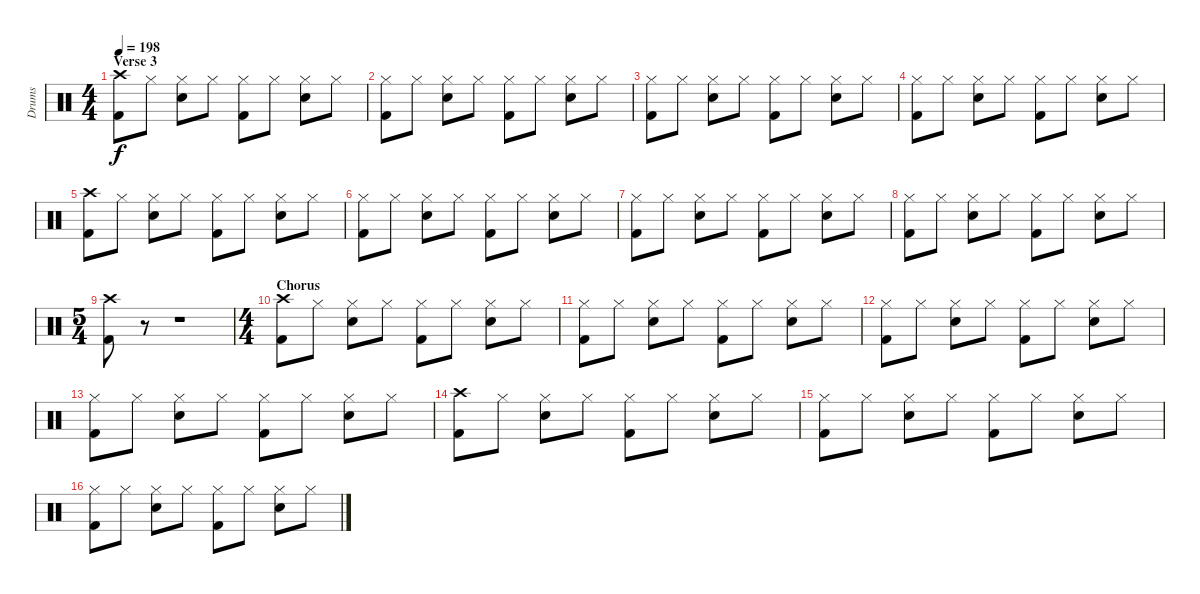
\track ("Drums" "Drums") {instrument percussion}
\staff {score}
\articulation defaults
\ts (4 4)
\section ("" "Verse 3")
\tempo 198
\clef neutral
\ks c
("Crash high (hit)" "Kick (hit) 2").8{dy f} "Hi-Hat (closed)".8 ("Hi-Hat (closed)" "Snare (hit) 2").8 "Hi-Hat (closed)".8 ("Hi-Hat (closed)" "Kick (hit) 2").8 "Hi-Hat (closed)".8 ("Hi-Hat (closed)" "Snare (hit) 2").8 "Hi-Hat (closed)".8 |
("Hi-Hat (closed)" "Kick (hit) 2").8 "Hi-Hat (closed)".8 ("Hi-Hat (closed)" "Snare (hit) 2").8 "Hi-Hat (closed)".8 ("Hi-Hat (closed)" "Kick (hit) 2").8 "Hi-Hat (closed)".8 ("Hi-Hat (closed)" "Snare (hit) 2").8 "Hi-Hat (closed)".8 |
("Hi-Hat (closed)" "Kick (hit) 2").8 "Hi-Hat (closed)".8 ("Hi-Hat (closed)" "Snare (hit) 2").8 "Hi-Hat (closed)".8 ("Hi-Hat (closed)" "Kick (hit) 2").8 "Hi-Hat (closed)".8 ("Hi-Hat (closed)" "Snare (hit) 2").8 "Hi-Hat (closed)".8 |
("Hi-Hat (closed)" "Kick (hit) 2").8 "Hi-Hat (closed)".8 ("Hi-Hat (closed)" "Snare (hit) 2").8 "Hi-Hat (closed)".8 ("Hi-Hat (closed)" "Kick (hit) 2").8 "Hi-Hat (closed)".8 ("Hi-Hat (closed)" "Snare (hit) 2").8 "Hi-Hat (closed)".8 |
("Crash high (hit)" "Kick (hit) 2").8 "Hi-Hat (closed)".8 ("Hi-Hat (closed)" "Snare (hit) 2").8 "Hi-Hat (closed)".8 ("Hi-Hat (closed)" "Kick (hit) 2").8 "Hi-Hat (closed)".8 ("Hi-Hat (closed)" "Snare (hit) 2").8 "Hi-Hat (closed)".8 |
("Hi-Hat (closed)" "Kick (hit) 2").8 "Hi-Hat (closed)".8 ("Hi-Hat (closed)" "Snare (hit) 2").8 "Hi-Hat (closed)".8 ("Hi-Hat (closed)" "Kick (hit) 2").8 "Hi-Hat (closed)".8 ("Hi-Hat (closed)" "Snare (hit) 2").8 "Hi-Hat (closed)".8 |
("Hi-Hat (closed)" "Kick (hit) 2").8 "Hi-Hat (closed)".8 ("Hi-Hat (closed)" "Snare (hit) 2").8 "Hi-Hat (closed)".8 ("Hi-Hat (closed)" "Kick (hit) 2").8 "Hi-Hat (closed)".8 ("Hi-Hat (closed)" "Snare (hit) 2").8 "Hi-Hat (closed)".8 |
("Hi-Hat (closed)" "Kick (hit) 2").8 "Hi-Hat (closed)".8 ("Hi-Hat (closed)" "Snare (hit) 2").8 "Hi-Hat (closed)".8 ("Hi-Hat (closed)" "Kick (hit) 2").8 "Hi-Hat (closed)".8 ("Hi-Hat (closed)" "Snare (hit) 2").8 "Hi-Hat (closed)".8 |
\ts (5 4)
("Crash high (hit)" "Kick (hit) 2").8 r.8 r.1 |
\ts (4 4)
\section ("" "Chorus")
("Crash high (hit)" "Kick (hit) 2").8 "Hi-Hat (closed)".8 ("Hi-Hat (closed)" "Snare (hit) 2").8 "Hi-Hat (closed)".8 ("Hi-Hat (closed)" "Kick (hit) 2").8 "Hi-Hat (closed)".8 ("Hi-Hat (closed)" "Snare (hit) 2").8 "Hi-Hat (closed)".8 |
("Hi-Hat (closed)" "Kick (hit) 2").8 "Hi-Hat (closed)".8 ("Hi-Hat (closed)" "Snare (hit) 2").8 "Hi-Hat (closed)".8 ("Hi-Hat (closed)" "Kick (hit) 2").8 "Hi-Hat (closed)".8 ("Hi-Hat (closed)" "Snare (hit) 2").8 "Hi-Hat (closed)".8 |
("Hi-Hat (closed)" "Kick (hit) 2").8 "Hi-Hat (closed)".8 ("Hi-Hat (closed)" "Snare (hit) 2").8 "Hi-Hat (closed)".8 ("Hi-Hat (closed)" "Kick (hit) 2").8 "Hi-Hat (closed)".8 ("Hi-Hat (closed)" "Snare (hit) 2").8 "Hi-Hat (closed)".8 |
("Hi-Hat (closed)" "Kick (hit) 2").8 "Hi-Hat (closed)".8 ("Hi-Hat (closed)" "Snare (hit) 2").8 "Hi-Hat (closed)".8 ("Hi-Hat (closed)" "Kick (hit) 2").8 "Hi-Hat (closed)".8 ("Hi-Hat (closed)" "Snare (hit) 2").8 "Hi-Hat (closed)".8 |
("Crash high (hit)" "Kick (hit) 2").8 "Hi-Hat (closed)".8 ("Hi-Hat (closed)" "Snare (hit) 2").8 "Hi-Hat (closed)".8 ("Hi-Hat (closed)" "Kick (hit) 2").8 "Hi-Hat (closed)".8 ("Hi-Hat (closed)" "Snare (hit) 2").8 "Hi-Hat (closed)".8 |
("Hi-Hat (closed)" "Kick (hit) 2").8 "Hi-Hat (closed)".8 ("Hi-Hat (closed)" "Snare (hit) 2").8 "Hi-Hat (closed)".8 ("Hi-Hat (closed)" "Kick (hit) 2").8 "Hi-Hat (closed)".8 ("Hi-Hat (closed)" "Snare (hit) 2").8 "Hi-Hat (closed)".8 |
("Hi-Hat (closed)" "Kick (hit) 2").8 "Hi-Hat (closed)".8 ("Hi-Hat (closed)" "Snare (hit) 2").8 "Hi-Hat (closed)".8 ("Hi-Hat (closed)" "Kick (hit) 2").8 "Hi-Hat (closed)".8 ("Hi-Hat (closed)" "Snare (hit) 2").8 "Hi-Hat (closed)".8
